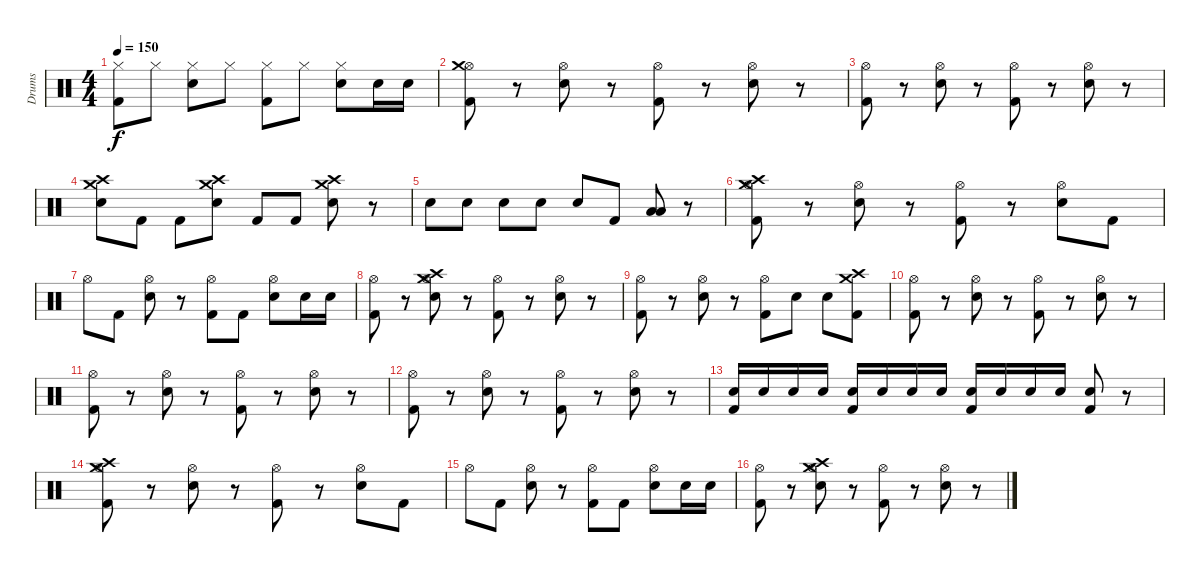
\track ("Drums" "Drums") {instrument percussion}
\staff {score}
\articulation defaults
\ts (4 4)
\tempo 150
\clef neutral
\ks c
("Hi-Hat (closed)" "Kick (hit) 2").8{dy f} "Hi-Hat (closed)".8 ("Hi-Hat (closed)" "Electric Snare (hit)").8 "Hi-Hat (closed)".8 ("Hi-Hat (closed)" "Kick (hit) 2").8 "Hi-Hat (closed)".8 ("Hi-Hat (closed)" "Electric Snare (hit)").8 "Electric Snare (hit)".16 "Electric Snare (hit)".16 |
("Hi-Hat (open)" "Kick (hit) 2" "Crash medium (hit)").8 r.8 ("Hi-Hat (open)" "Electric Snare (hit)").8 r.8 ("Hi-Hat (open)" "Kick (hit) 2").8 r.8 ("Hi-Hat (open)" "Electric Snare (hit)").8 r.8 |
("Hi-Hat (open)" "Kick (hit) 2").8 r.8 ("Hi-Hat (open)" "Electric Snare (hit)").8 r.8 ("Hi-Hat (open)" "Kick (hit) 2").8 r.8 ("Hi-Hat (open)" "Electric Snare (hit)").8 r.8 |
("Electric Snare (hit)" "Crash medium (hit)" "Crash high (hit)").8 "Kick (hit) 2".8 "Kick (hit) 2".8 ("Electric Snare (hit)" "Crash medium (hit)" "Crash high (hit)").8 "Kick (hit) 2".8 "Kick (hit) 2".8 ("Electric Snare (hit)" "Crash medium (hit)" "Crash high (hit)").8 r.8 |
"Electric Snare (hit)".8 "Electric Snare (hit)".8 "Electric Snare (hit)".8 "Electric Snare (hit)".8 "Electric Snare (hit)".8 "Kick (hit) 2".8 ("Low Floor Tom (hit)" "Low Floor Tom (hit)").8 r.8 |
("Hi-Hat (open)" "Kick (hit) 2" "Crash medium (hit)" "Crash high (hit)").8 r.8 ("Hi-Hat (open)" "Electric Snare (hit)").8 r.8 ("Hi-Hat (open)" "Kick (hit) 2").8 r.8 ("Hi-Hat (open)" "Electric Snare (hit)").8 "Kick (hit) 2".8 |
"Hi-Hat (open)".8 "Kick (hit) 2".8 ("Hi-Hat (open)" "Electric Snare (hit)").8 r.8 ("Hi-Hat (open)" "Kick (hit) 2").8 "Kick (hit) 2".8 ("Hi-Hat (open)" "Electric Snare (hit)").8 "Electric Snare (hit)".16 "Electric Snare (hit)".16 |
("Hi-Hat (open)" "Kick (hit) 2").8 r.8 ("Hi-Hat (open)" "Electric Snare (hit)" "Crash high (hit)" "Crash medium (hit)").8 r.8 ("Hi-Hat (open)" "Kick (hit) 2").8 r.8 ("Hi-Hat (open)" "Electric Snare (hit)").8 r.8 |
("Hi-Hat (open)" "Kick (hit) 2").8 r.8 ("Hi-Hat (open)" "Electric Snare (hit)").8 r.8 ("Hi-Hat (open)" "Kick (hit) 2").8 "Electric Snare (hit)".8 "Electric Snare (hit)".8 ("Kick (hit) 2" "Crash medium (hit)" "Crash high (hit)").8 |
("Hi-Hat (open)" "Kick (hit) 2").8 r.8 ("Hi-Hat (open)" "Electric Snare (hit)").8 r.8 ("Hi-Hat (open)" "Kick (hit) 2").8 r.8 ("Hi-Hat (open)" "Electric Snare (hit)").8 r.8 |
("Hi-Hat (open)" "Kick (hit) 2").8 r.8 ("Hi-Hat (open)" "Electric Snare (hit)").8 r.8 ("Hi-Hat (open)" "Kick (hit) 2").8 r.8 ("Hi-Hat (open)" "Electric Snare (hit)").8 r.8 |
("Hi-Hat (open)" "Kick (hit) 2").8 r.8 ("Hi-Hat (open)" "Electric Snare (hit)").8 r.8 ("Hi-Hat (open)" "Kick (hit) 2").8 r.8 ("Hi-Hat (open)" "Electric Snare (hit)").8 r.8 |
("Electric Snare (hit)" "Kick (hit) 2").16 "Electric Snare (hit)".16 "Electric Snare (hit)".16 "Electric Snare (hit)".16 ("Electric Snare (hit)" "Kick (hit) 2").16 "Electric Snare (hit)".16 "Electric Snare (hit)".16 "Electric Snare (hit)".16 ("Electric Snare (hit)" "Kick (hit) 2").16 "Electric Snare (hit)".16 "Electric Snare (hit)".16 "Electric Snare (hit)".16 ("Electric Snare (hit)" "Kick (hit) 2").8 r.8 |
("Hi-Hat (open)" "Kick (hit) 2" "Crash medium (hit)" "Crash high (hit)").8 r.8 ("Hi-Hat (open)" "Electric Snare (hit)").8 r.8 ("Hi-Hat (open)" "Kick (hit) 2").8 r.8 ("Hi-Hat (open)" "Electric Snare (hit)").8 "Kick (hit) 2".8 |
"Hi-Hat (open)".8 "Kick (hit) 2".8 ("Hi-Hat (open)" "Electric Snare (hit)").8 r.8 ("Hi-Hat (open)" "Kick (hit) 2").8 "Kick (hit) 2".8 ("Hi-Hat (open)" "Electric Snare (hit)").8 "Electric Snare (hit)".16 "Electric Snare (hit)".16 |
("Hi-Hat (open)" "Kick (hit) 2").8 r.8 ("Hi-Hat (open)" "Electric Snare (hit)" "Crash high (hit)" "Crash medium (hit)").8 r.8 ("Hi-Hat (open)" "Kick (hit) 2").8 r.8 ("Hi-Hat (open)" "Electric Snare (hit)").8 r.8
